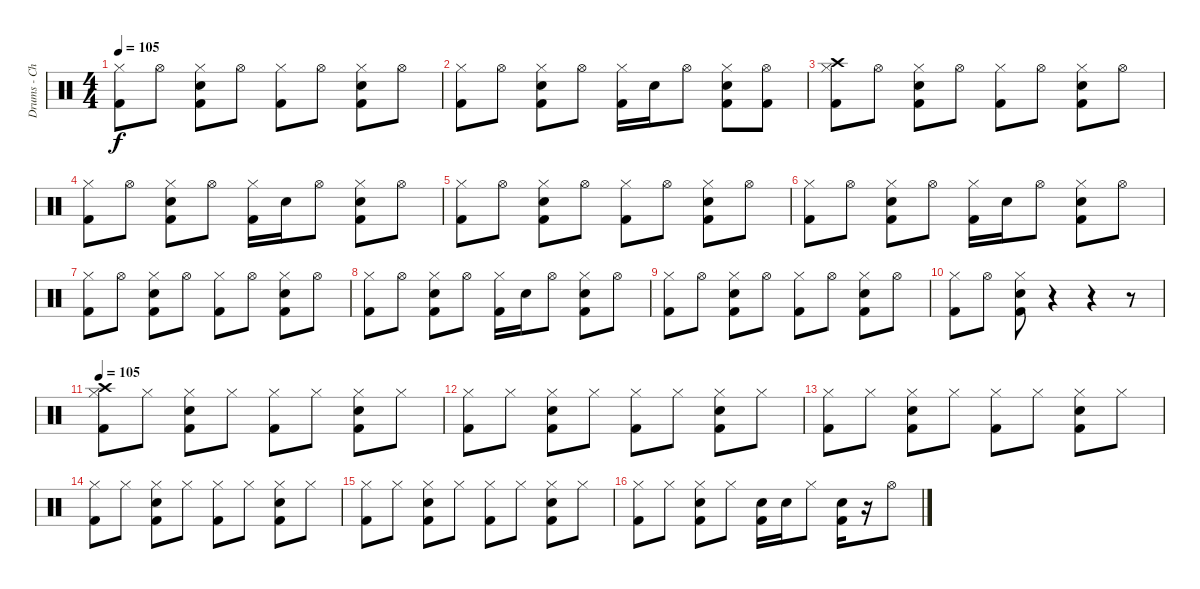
\track ("Drums - Christoph Schneider" "Drums - Ch") {instrument percussion}
\staff {score}
\articulation defaults
\ts (4 4)
\tempo 105
\clef neutral
\ks c
("Hi-Hat (closed)" "Kick (hit) 2").8{dy f} "Hi-Hat (open)".8 ("Hi-Hat (closed)" "Snare (hit) 2" "Kick (hit) 2").8 "Hi-Hat (open)".8 ("Hi-Hat (closed)" "Kick (hit) 2").8 "Hi-Hat (open)".8 ("Hi-Hat (closed)" "Snare (hit) 2" "Kick (hit) 2").8 "Hi-Hat (open)".8 |
("Hi-Hat (closed)" "Kick (hit) 2").8 "Hi-Hat (open)".8 ("Hi-Hat (closed)" "Snare (hit) 2" "Kick (hit) 2").8 "Hi-Hat (open)".8 ("Hi-Hat (closed)" "Kick (hit) 2").16 "Snare (hit) 2".16 "Hi-Hat (open)".8 ("Hi-Hat (closed)" "Snare (hit) 2" "Kick (hit) 2").8 ("Hi-Hat (open)" "Kick (hit) 2").8 |
("Crash high (hit)" "Hi-Hat (closed)" "Kick (hit) 2").8 "Hi-Hat (open)".8 ("Hi-Hat (closed)" "Snare (hit) 2" "Kick (hit) 2").8 "Hi-Hat (open)".8 ("Hi-Hat (closed)" "Kick (hit) 2").8 "Hi-Hat (open)".8 ("Hi-Hat (closed)" "Snare (hit) 2" "Kick (hit) 2").8 "Hi-Hat (open)".8 |
("Hi-Hat (closed)" "Kick (hit) 2").8 "Hi-Hat (open)".8 ("Hi-Hat (closed)" "Snare (hit) 2" "Kick (hit) 2").8 "Hi-Hat (open)".8 ("Hi-Hat (closed)" "Kick (hit) 2").16 "Snare (hit) 2".16 "Hi-Hat (open)".8 ("Hi-Hat (closed)" "Snare (hit) 2" "Kick (hit) 2").8 "Hi-Hat (open)".8 |
("Hi-Hat (closed)" "Kick (hit) 2").8 "Hi-Hat (open)".8 ("Hi-Hat (closed)" "Snare (hit) 2" "Kick (hit) 2").8 "Hi-Hat (open)".8 ("Hi-Hat (closed)" "Kick (hit) 2").8 "Hi-Hat (open)".8 ("Hi-Hat (closed)" "Snare (hit) 2" "Kick (hit) 2").8 "Hi-Hat (open)".8 |
("Hi-Hat (closed)" "Kick (hit) 2").8 "Hi-Hat (open)".8 ("Hi-Hat (closed)" "Snare (hit) 2" "Kick (hit) 2").8 "Hi-Hat (open)".8 ("Hi-Hat (closed)" "Kick (hit) 2").16 "Snare (hit) 2".16 "Hi-Hat (open)".8 ("Hi-Hat (closed)" "Snare (hit) 2" "Kick (hit) 2").8 "Hi-Hat (open)".8 |
("Hi-Hat (closed)" "Kick (hit) 2").8 "Hi-Hat (open)".8 ("Hi-Hat (closed)" "Snare (hit) 2" "Kick (hit) 2").8 "Hi-Hat (open)".8 ("Hi-Hat (closed)" "Kick (hit) 2").8 "Hi-Hat (open)".8 ("Hi-Hat (closed)" "Snare (hit) 2" "Kick (hit) 2").8 "Hi-Hat (open)".8 |
("Hi-Hat (closed)" "Kick (hit) 2").8 "Hi-Hat (open)".8 ("Hi-Hat (closed)" "Snare (hit) 2" "Kick (hit) 2").8 "Hi-Hat (open)".8 ("Hi-Hat (closed)" "Kick (hit) 2").16 "Snare (hit) 2".16 "Hi-Hat (open)".8 ("Hi-Hat (closed)" "Snare (hit) 2" "Kick (hit) 2").8 "Hi-Hat (open)".8 |
("Hi-Hat (closed)" "Kick (hit) 2").8 "Hi-Hat (open)".8 ("Hi-Hat (closed)" "Snare (hit) 2" "Kick (hit) 2").8 "Hi-Hat (open)".8 ("Hi-Hat (closed)" "Kick (hit) 2").8 "Hi-Hat (open)".8 ("Hi-Hat (closed)" "Snare (hit) 2" "Kick (hit) 2").8 "Hi-Hat (open)".8 |
("Hi-Hat (closed)" "Kick (hit) 2").8 "Hi-Hat (open)".8 ("Hi-Hat (closed)" "Snare (hit) 2" "Kick (hit) 2").8 r.4 r.4 r.8 |
\tempo 105
("Crash high (hit)" "Hi-Hat (closed)" "Kick (hit) 2").8 "Hi-Hat (closed)".8 ("Hi-Hat (closed)" "Snare (hit) 2" "Kick (hit) 2").8 "Hi-Hat (closed)".8 ("Hi-Hat (closed)" "Kick (hit) 2").8 "Hi-Hat (closed)".8 ("Hi-Hat (closed)" "Snare (hit) 2" "Kick (hit) 2").8 "Hi-Hat (closed)".8 |
("Hi-Hat (closed)" "Kick (hit) 2").8 "Hi-Hat (closed)".8 ("Hi-Hat (closed)" "Snare (hit) 2" "Kick (hit) 2").8 "Hi-Hat (closed)".8 ("Hi-Hat (closed)" "Kick (hit) 2").8 "Hi-Hat (closed)".8 ("Hi-Hat (closed)" "Snare (hit) 2" "Kick (hit) 2").8 "Hi-Hat (closed)".8 |
("Hi-Hat (closed)" "Kick (hit) 2").8 "Hi-Hat (closed)".8 ("Hi-Hat (closed)" "Snare (hit) 2" "Kick (hit) 2").8 "Hi-Hat (closed)".8 ("Hi-Hat (closed)" "Kick (hit) 2").8 "Hi-Hat (closed)".8 ("Hi-Hat (closed)" "Snare (hit) 2" "Kick (hit) 2").8 "Hi-Hat (closed)".8 |
("Hi-Hat (closed)" "Kick (hit) 2").8 "Hi-Hat (closed)".8 ("Hi-Hat (closed)" "Snare (hit) 2" "Kick (hit) 2").8 "Hi-Hat (closed)".8 ("Hi-Hat (closed)" "Kick (hit) 2").8 "Hi-Hat (closed)".8 ("Hi-Hat (closed)" "Snare (hit) 2" "Kick (hit) 2").8 "Hi-Hat (closed)".8 |
("Hi-Hat (closed)" "Kick (hit) 2").8 "Hi-Hat (closed)".8 ("Hi-Hat (closed)" "Snare (hit) 2" "Kick (hit) 2").8 "Hi-Hat (closed)".8 ("Hi-Hat (closed)" "Kick (hit) 2").8 "Hi-Hat (closed)".8 ("Hi-Hat (closed)" "Snare (hit) 2" "Kick (hit) 2").8 "Hi-Hat (closed)".8 |
("Hi-Hat (closed)" "Kick (hit) 2").8 "Hi-Hat (closed)".8 ("Hi-Hat (closed)" "Snare (hit) 2" "Kick (hit) 2").8 "Hi-Hat (closed)".8 ("Snare (hit) 2" "Kick (hit) 2").16 "Snare (hit) 2".16 "Hi-Hat (closed)".8 ("Snare (hit) 2" "Kick (hit) 2").16 r.16 "Hi-Hat (open)".8
